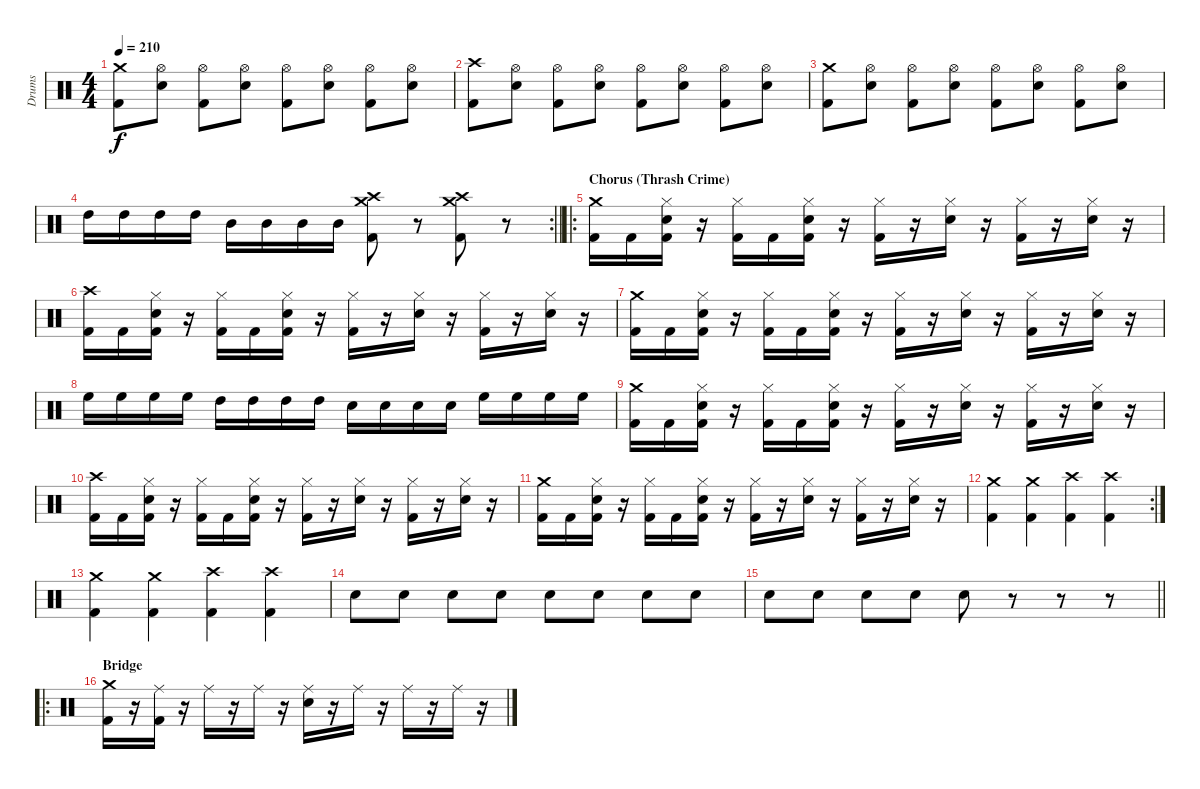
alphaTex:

\track ("Drums" "Drums") {instrument percussion}
\staff {score}
\articulation defaults
\ts (4 4)
\tempo 210
\clef neutral
\ks c
("Crash medium (hit)" "Kick (hit) 2").8{dy f} ("Hi-Hat (open)" "Electric Snare (hit)").8 ("Hi-Hat (open)" "Kick (hit) 2").8 ("Hi-Hat (open)" "Electric Snare (hit)").8 ("Hi-Hat (open)" "Kick (hit) 2").8 ("Hi-Hat (open)" "Electric Snare (hit)").8 ("Hi-Hat (open)" "Kick (hit) 2").8 ("Hi-Hat (open)" "Electric Snare (hit)").8 |
("Crash high (hit)" "Kick (hit) 2").8 ("Hi-Hat (open)" "Electric Snare (hit)").8 ("Hi-Hat (open)" "Kick (hit) 2").8 ("Hi-Hat (open)" "Electric Snare (hit)").8 ("Hi-Hat (open)" "Kick (hit) 2").8 ("Hi-Hat (open)" "Electric Snare (hit)").8 ("Hi-Hat (open)" "Kick (hit) 2").8 ("Hi-Hat (open)" "Electric Snare (hit)").8 |
("Crash medium (hit)" "Kick (hit) 2").8 ("Hi-Hat (open)" "Electric Snare (hit)").8 ("Hi-Hat (open)" "Kick (hit) 2").8 ("Hi-Hat (open)" "Electric Snare (hit)").8 ("Hi-Hat (open)" "Kick (hit) 2").8 ("Hi-Hat (open)" "Electric Snare (hit)").8 ("Hi-Hat (open)" "Kick (hit) 2").8 ("Hi-Hat (open)" "Electric Snare (hit)").8 |
\rc 2
\barLineRight lightlight "High Tom (hit)".16 "High Tom (hit)".16 "High Tom (hit)".16 "High Tom (hit)".16 "Mid Tom (hit)".16 "Mid Tom (hit)".16 "Mid Tom (hit)".16 "Mid Tom (hit)".16
("Crash medium (hit)" "Crash high (hit)" "Kick (hit) 2").8 r.8 ("Crash medium (hit)" "Crash high (hit)" "Kick (hit) 2").8 r.8 |
\ro
\section ("" "Chorus (Thrash Crime)")
("Crash medium (hit)" "Kick (hit) 2").16 "Kick (hit) 2".16 ("Hi-Hat (closed)" "Electric Snare (hit)" "Kick (hit) 2").16 r.16 ("Hi-Hat (closed)" "Kick (hit) 2").16 "Kick (hit) 2".16 ("Hi-Hat (closed)" "Electric Snare (hit)" "Kick (hit) 2").16 r.16 ("Hi-Hat (closed)" "Kick (hit) 2").16 r.16 ("Hi-Hat (closed)" "Electric Snare (hit)").16 r.16 ("Hi-Hat (closed)" "Kick (hit) 2").16 r.16 ("Hi-Hat (closed)" "Electric Snare (hit)").16 r.16 |
("Crash high (hit)" "Kick (hit) 2").16 "Kick (hit) 2".16 ("Hi-Hat (closed)" "Electric Snare (hit)" "Kick (hit) 2").16 r.16 ("Hi-Hat (closed)" "Kick (hit) 2").16 "Kick (hit) 2".16 ("Hi-Hat (closed)" "Electric Snare (hit)" "Kick (hit) 2").16 r.16 ("Hi-Hat (closed)" "Kick (hit) 2").16 r.16 ("Hi-Hat (closed)" "Electric Snare (hit)").16 r.16 ("Hi-Hat (closed)" "Kick (hit) 2").16 r.16 ("Hi-Hat (closed)" "Electric Snare (hit)").16 r.16 |
("Crash medium (hit)" "Kick (hit) 2").16 "Kick (hit) 2".16 ("Hi-Hat (closed)" "Electric Snare (hit)" "Kick (hit) 2").16 r.16 ("Hi-Hat (closed)" "Kick (hit) 2").16 "Kick (hit) 2".16 ("Hi-Hat (closed)" "Electric Snare (hit)" "Kick (hit) 2").16 r.16 ("Hi-Hat (closed)" "Kick (hit) 2").16 r.16 ("Hi-Hat (closed)" "Electric Snare (hit)").16 r.16 ("Hi-Hat (closed)" "Kick (hit) 2").16 r.16 ("Hi-Hat (closed)" "Electric Snare (hit)").16 r.16 |
"High Floor Tom (hit)".16 "High Floor Tom (hit)".16 "High Floor Tom (hit)".16 "High Floor Tom (hit)".16 "High Tom (hit)".16 "High Tom (hit)".16 "High Tom (hit)".16 "High Tom (hit)".16 "Electric Snare (hit)".16 "Electric Snare (hit)".16 "Electric Snare (hit)".16 "Electric Snare (hit)".16 "High Floor Tom (hit)".16 "High Floor Tom (hit)".16 "High Floor Tom (hit)".16 "High Floor Tom (hit)".16 |
("Crash medium (hit)" "Kick (hit) 2").16 "Kick (hit) 2".16 ("Hi-Hat (closed)" "Electric Snare (hit)" "Kick (hit) 2").16 r.16 ("Hi-Hat (closed)" "Kick (hit) 2").16 "Kick (hit) 2".16 ("Hi-Hat (closed)" "Electric Snare (hit)" "Kick (hit) 2").16 r.16 ("Hi-Hat (closed)" "Kick (hit) 2").16 r.16 ("Hi-Hat (closed)" "Electric Snare (hit)").16 r.16 ("Hi-Hat (closed)" "Kick (hit) 2").16 r.16 ("Hi-Hat (closed)" "Electric Snare (hit)").16 r.16 |
("Crash high (hit)" "Kick (hit) 2").16 "Kick (hit) 2".16 ("Hi-Hat (closed)" "Electric Snare (hit)" "Kick (hit) 2").16 r.16 ("Hi-Hat (closed)" "Kick (hit) 2").16 "Kick (hit) 2".16 ("Hi-Hat (closed)" "Electric Snare (hit)" "Kick (hit) 2").16 r.16 ("Hi-Hat (closed)" "Kick (hit) 2").16 r.16 ("Hi-Hat (closed)" "Electric Snare (hit)").16 r.16 ("Hi-Hat (closed)" "Kick (hit) 2").16 r.16 ("Hi-Hat (closed)" "Electric Snare (hit)").16 r.16 |
("Crash medium (hit)" "Kick (hit) 2").16 "Kick (hit) 2".16 ("Hi-Hat (closed)" "Electric Snare (hit)" "Kick (hit) 2").16 r.16 ("Hi-Hat (closed)" "Kick (hit) 2").16 "Kick (hit) 2".16 ("Hi-Hat (closed)" "Electric Snare (hit)" "Kick (hit) 2").16 r.16 ("Hi-Hat (closed)" "Kick (hit) 2").16 r.16 ("Hi-Hat (closed)" "Electric Snare (hit)").16 r.16 ("Hi-Hat (closed)" "Kick (hit) 2").16 r.16 ("Hi-Hat (closed)" "Electric Snare (hit)").16 r.16 |
\rc 2
("Crash medium (hit)" "Kick (hit) 2").4 ("Crash medium (hit)" "Kick (hit) 2").4 ("Crash high (hit)" "Kick (hit) 2").4 ("Crash high (hit)" "Kick (hit) 2").4 |
("Crash medium (hit)" "Kick (hit) 2").4 ("Crash medium (hit)" "Kick (hit) 2").4 ("Crash high (hit)" "Kick (hit) 2").4 ("Crash high (hit)" "Kick (hit) 2").4 |
"Electric Snare (hit)".8 "Electric Snare (hit)".8 "Electric Snare (hit)".8 "Electric Snare (hit)".8 "Electric Snare (hit)".8 "Electric Snare (hit)".8 "Electric Snare (hit)".8 "Electric Snare (hit)".8 |
\barLineRight lightlight "Electric Snare (hit)".8 "Electric Snare (hit)".8 "Electric Snare (hit)".8 "Electric Snare (hit)".8 "Electric Snare (hit)".8
r.8 r.8 r.8 |
\ro
\section ("" "Bridge")
("Crash medium (hit)" "Kick (hit) 2").16 r.16 ("Ride (middle)" "Kick (hit) 2").16 r.16 "Ride (middle)".16 r.16 "Ride (middle)".16 r.16 ("Ride (middle)" "Electric Snare (hit)").16 r.16 "Ride (middle)".16 r.16 "Ride (middle)".16 r.16 "Ride (middle)".16 r.16
